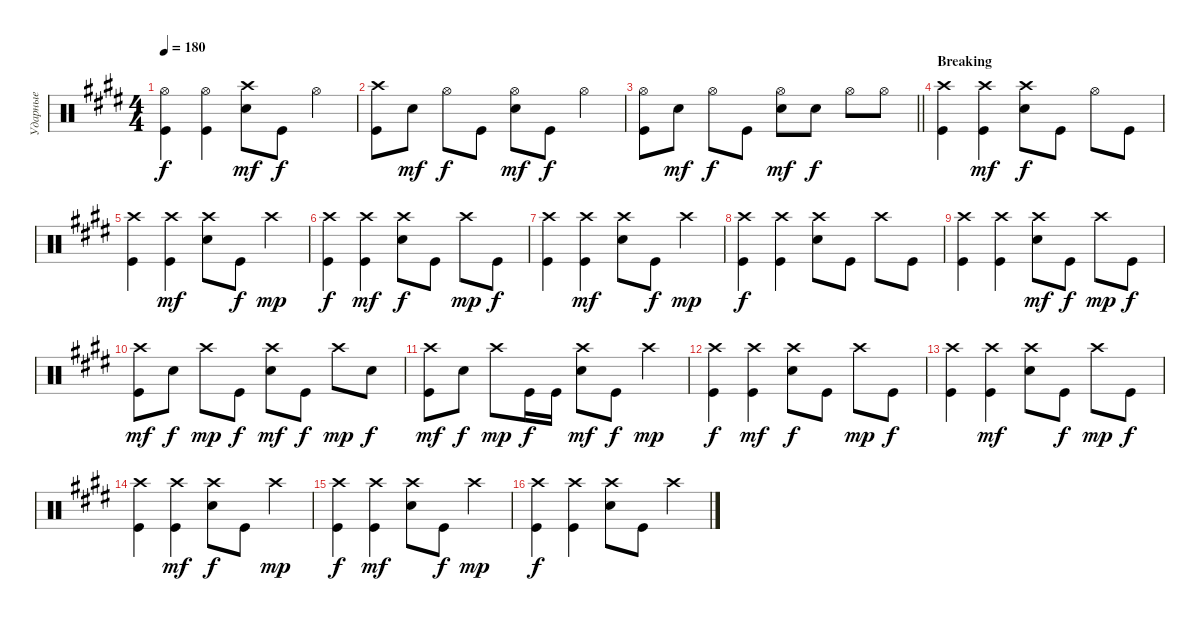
\track ("Ударные" "Ударные") {instrument percussion}
\staff {score}
\articulation defaults
\ts (4 4)
\tempo 180
\clef neutral
\ks c#minor
("Kick (hit)" "Hi-Hat (open)").4{dy f} ("Hi-Hat (open)" "Kick (hit)").4 ("Snare (hit) 2" "Crash high (hit)").8{dy mf} "Kick (hit)".8{dy f} "Hi-Hat (open)".4 |
("Kick (hit)" "Crash high (hit)").8 "Snare (hit) 2".8{dy mf} "Hi-Hat (open)".8{dy f} "Kick (hit)".8 ("Snare (hit) 2" "Hi-Hat (open)").8{dy mf} "Kick (hit)".8{dy f} "Hi-Hat (open)".4 |
\barLineRight lightlight
("Kick (hit)" "Hi-Hat (open)").8 "Snare (hit) 2".8{dy mf} "Hi-Hat (open)".8{dy f} "Kick (hit)".8 ("Snare (hit) 2" "Hi-Hat (open)").8{dy mf} "Snare (hit) 2".8{dy f} "Hi-Hat (open)".8 "Hi-Hat (open)".8 |
\section ("" "Breaking")
("Kick (hit)" "Crash high (hit)").4 ("Kick (hit)" "Crash high (hit)").4{dy mf} ("Snare (hit) 2" "Crash high (hit)").8{dy f} "Kick (hit)".8 "Hi-Hat (open)".8 "Kick (hit)".8 |
("Kick (hit)" "Crash high (hit)").4 ("Crash high (hit)" "Kick (hit)").4{dy mf} ("Snare (hit) 2" "Crash high (hit)").8 "Kick (hit)".8{dy f} "Crash high (hit)".4{dy mp} |
("Kick (hit)" "Crash high (hit)").4{dy f} ("Kick (hit)" "Crash high (hit)").4{dy mf} ("Snare (hit) 2" "Crash high (hit)").8{dy f} "Kick (hit)".8 "Crash high (hit)".8{dy mp} "Kick (hit)".8{dy f} |
("Kick (hit)" "Crash high (hit)").4 ("Crash high (hit)" "Kick (hit)").4{dy mf} ("Snare (hit) 2" "Crash high (hit)").8 "Kick (hit)".8{dy f} "Crash high (hit)".4{dy mp} |
("Kick (hit)" "Crash high (hit)").4{dy f} ("Kick (hit)" "Crash high (hit)").4 ("Snare (hit) 2" "Crash high (hit)").8 "Kick (hit)".8 "Crash high (hit)".8 "Kick (hit)".8 |
("Kick (hit)" "Crash high (hit)").4 ("Crash high (hit)" "Kick (hit)").4 ("Snare (hit) 2" "Crash high (hit)").8{dy mf} "Kick (hit)".8{dy f} "Crash high (hit)".8{dy mp} "Kick (hit)".8{dy f} |
("Kick (hit)" "Crash high (hit)").8{dy mf} "Snare (hit) 2".8{dy f} "Crash high (hit)".8{dy mp} "Kick (hit)".8{dy f} ("Snare (hit) 2" "Crash high (hit)").8{dy mf} "Kick (hit)".8{dy f} "Crash high (hit)".8{dy mp} "Snare (hit) 2".8{dy f} |
("Kick (hit)" "Crash high (hit)").8{dy mf} "Snare (hit) 2".8{dy f} "Crash high (hit)".8{dy mp} "Kick (hit)".16{dy f} "Kick (hit)".16 ("Snare (hit) 2" "Crash high (hit)").8{dy mf} "Kick (hit)".8{dy f} "Crash high (hit)".4{dy mp} |
("Kick (hit)" "Crash high (hit)").4{dy f} ("Kick (hit)" "Crash high (hit)").4{dy mf} ("Snare (hit) 2" "Crash high (hit)").8{dy f} "Kick (hit)".8 "Crash high (hit)".8{dy mp} "Kick (hit)".8{dy f} |
("Kick (hit)" "Crash high (hit)").4 ("Crash high (hit)" "Kick (hit)").4{dy mf} ("Snare (hit) 2" "Crash high (hit)").8 "Kick (hit)".8{dy f} "Crash high (hit)".8{dy mp} "Kick (hit)".8{dy f} |
("Kick (hit)" "Crash high (hit)").4 ("Kick (hit)" "Crash high (hit)").4{dy mf} ("Snare (hit) 2" "Crash high (hit)").8{dy f} "Kick (hit)".8 "Crash high (hit)".4{dy mp} |
("Kick (hit)" "Crash high (hit)").4{dy f} ("Crash high (hit)" "Kick (hit)").4{dy mf} ("Snare (hit) 2" "Crash high (hit)").8 "Kick (hit)".8{dy f} "Crash high (hit)".4{dy mp} |
("Kick (hit)" "Crash high (hit)").4{dy f} ("Kick (hit)" "Crash high (hit)").4 ("Snare (hit) 2" "Crash high (hit)").8 "Kick (hit)".8 "Crash high (hit)".4
